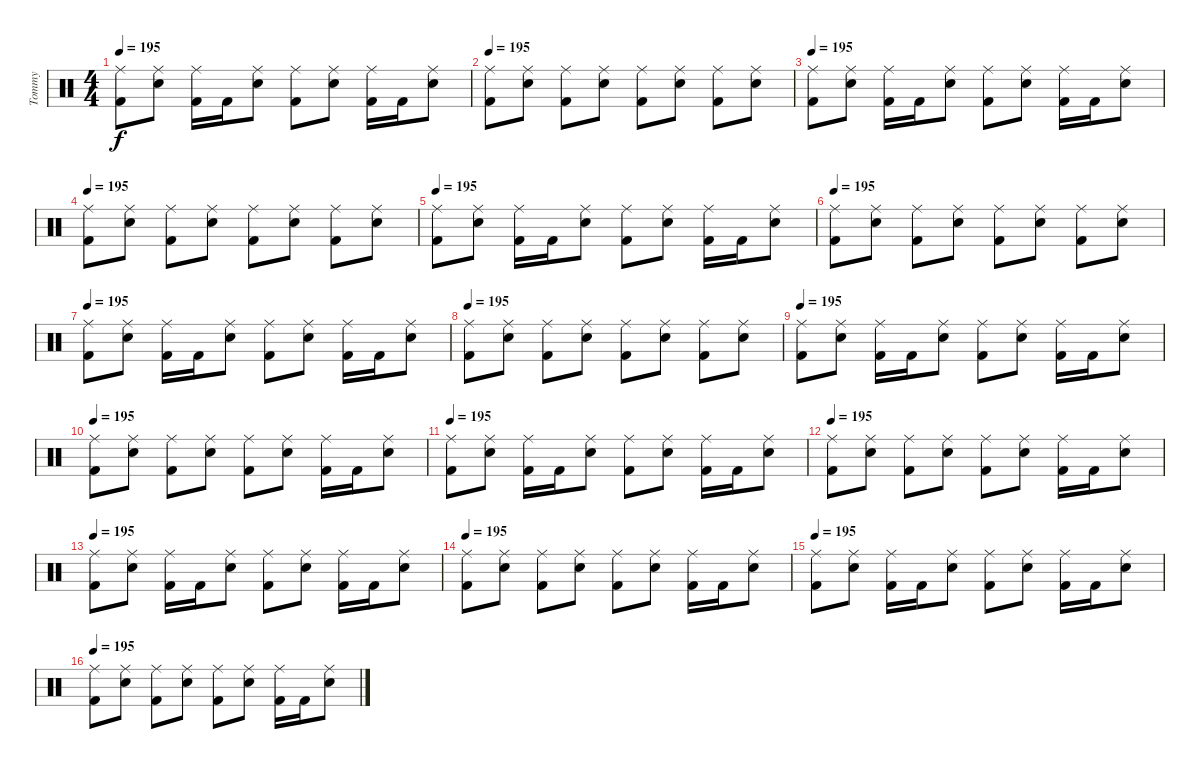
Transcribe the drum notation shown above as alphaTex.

\track ("Tommy" "Tommy") {instrument percussion}
\staff {score}
\articulation defaults
\ts (4 4)
\tempo 195
\clef neutral
\ks c
("Kick (hit) 2" "Ride (middle)").8{dy f} ("Snare (hit) 2" "Ride (middle)").8 ("Kick (hit) 2" "Ride (middle)").16 "Kick (hit) 2".16 ("Snare (hit) 2" "Ride (middle)").8 ("Kick (hit) 2" "Ride (middle)").8 ("Snare (hit) 2" "Ride (middle)").8 ("Kick (hit) 2" "Ride (middle)").16 "Kick (hit) 2".16 ("Snare (hit) 2" "Ride (middle)").8 |
\tempo 195
("Kick (hit) 2" "Ride (middle)").8 ("Snare (hit) 2" "Ride (middle)").8 ("Kick (hit) 2" "Ride (middle)").8 ("Snare (hit) 2" "Ride (middle)").8 ("Kick (hit) 2" "Ride (middle)").8 ("Snare (hit) 2" "Ride (middle)").8 ("Kick (hit) 2" "Ride (middle)").8 ("Snare (hit) 2" "Ride (middle)").8 |
\tempo 195
("Kick (hit) 2" "Ride (middle)").8 ("Snare (hit) 2" "Ride (middle)").8 ("Kick (hit) 2" "Ride (middle)").16 "Kick (hit) 2".16 ("Snare (hit) 2" "Ride (middle)").8 ("Kick (hit) 2" "Ride (middle)").8 ("Snare (hit) 2" "Ride (middle)").8 ("Kick (hit) 2" "Ride (middle)").16 "Kick (hit) 2".16 ("Snare (hit) 2" "Ride (middle)").8 |
\tempo 195
("Kick (hit) 2" "Ride (middle)").8 ("Snare (hit) 2" "Ride (middle)").8 ("Kick (hit) 2" "Ride (middle)").8 ("Snare (hit) 2" "Ride (middle)").8 ("Kick (hit) 2" "Ride (middle)").8 ("Snare (hit) 2" "Ride (middle)").8 ("Kick (hit) 2" "Ride (middle)").8 ("Snare (hit) 2" "Ride (middle)").8 |
\tempo 195
("Kick (hit) 2" "Ride (middle)").8 ("Snare (hit) 2" "Ride (middle)").8 ("Kick (hit) 2" "Ride (middle)").16 "Kick (hit) 2".16 ("Snare (hit) 2" "Ride (middle)").8 ("Kick (hit) 2" "Ride (middle)").8 ("Snare (hit) 2" "Ride (middle)").8 ("Kick (hit) 2" "Ride (middle)").16 "Kick (hit) 2".16 ("Snare (hit) 2" "Ride (middle)").8 |
\tempo 195
("Kick (hit) 2" "Ride (middle)").8 ("Snare (hit) 2" "Ride (middle)").8 ("Kick (hit) 2" "Ride (middle)").8 ("Snare (hit) 2" "Ride (middle)").8 ("Kick (hit) 2" "Ride (middle)").8 ("Snare (hit) 2" "Ride (middle)").8 ("Kick (hit) 2" "Ride (middle)").8 ("Snare (hit) 2" "Ride (middle)").8 |
\tempo 195
("Kick (hit) 2" "Ride (middle)").8 ("Snare (hit) 2" "Ride (middle)").8 ("Kick (hit) 2" "Ride (middle)").16 "Kick (hit) 2".16 ("Snare (hit) 2" "Ride (middle)").8 ("Kick (hit) 2" "Ride (middle)").8 ("Snare (hit) 2" "Ride (middle)").8 ("Kick (hit) 2" "Ride (middle)").16 "Kick (hit) 2".16 ("Snare (hit) 2" "Ride (middle)").8 |
\tempo 195
("Kick (hit) 2" "Ride (middle)").8 ("Snare (hit) 2" "Ride (middle)").8 ("Kick (hit) 2" "Ride (middle)").8 ("Snare (hit) 2" "Ride (middle)").8 ("Kick (hit) 2" "Ride (middle)").8 ("Snare (hit) 2" "Ride (middle)").8 ("Kick (hit) 2" "Ride (middle)").8 ("Snare (hit) 2" "Ride (middle)").8 |
\tempo 195
("Kick (hit) 2" "Ride (middle)").8 ("Snare (hit) 2" "Ride (middle)").8 ("Kick (hit) 2" "Ride (middle)").16 "Kick (hit) 2".16 ("Snare (hit) 2" "Ride (middle)").8 ("Kick (hit) 2" "Ride (middle)").8 ("Snare (hit) 2" "Ride (middle)").8 ("Kick (hit) 2" "Ride (middle)").16 "Kick (hit) 2".16 ("Snare (hit) 2" "Ride (middle)").8 |
\tempo 195
("Kick (hit) 2" "Ride (middle)").8 ("Snare (hit) 2" "Ride (middle)").8 ("Kick (hit) 2" "Ride (middle)").8 ("Snare (hit) 2" "Ride (middle)").8 ("Kick (hit) 2" "Ride (middle)").8 ("Snare (hit) 2" "Ride (middle)").8 ("Kick (hit) 2" "Ride (middle)").16 "Kick (hit) 2".16 ("Snare (hit) 2" "Ride (middle)").8 |
\tempo 195
("Kick (hit) 2" "Ride (middle)").8 ("Snare (hit) 2" "Ride (middle)").8 ("Kick (hit) 2" "Ride (middle)").16 "Kick (hit) 2".16 ("Snare (hit) 2" "Ride (middle)").8 ("Kick (hit) 2" "Ride (middle)").8 ("Snare (hit) 2" "Ride (middle)").8 ("Kick (hit) 2" "Ride (middle)").16 "Kick (hit) 2".16 ("Snare (hit) 2" "Ride (middle)").8 |
\tempo 195
("Kick (hit) 2" "Ride (middle)").8 ("Snare (hit) 2" "Ride (middle)").8 ("Kick (hit) 2" "Ride (middle)").8 ("Snare (hit) 2" "Ride (middle)").8 ("Kick (hit) 2" "Ride (middle)").8 ("Snare (hit) 2" "Ride (middle)").8 ("Kick (hit) 2" "Ride (middle)").16 "Kick (hit) 2".16 ("Snare (hit) 2" "Ride (middle)").8 |
\tempo 195
("Kick (hit) 2" "Ride (middle)").8 ("Snare (hit) 2" "Ride (middle)").8 ("Kick (hit) 2" "Ride (middle)").16 "Kick (hit) 2".16 ("Snare (hit) 2" "Ride (middle)").8 ("Kick (hit) 2" "Ride (middle)").8 ("Snare (hit) 2" "Ride (middle)").8 ("Kick (hit) 2" "Ride (middle)").16 "Kick (hit) 2".16 ("Snare (hit) 2" "Ride (middle)").8 |
\tempo 195
("Kick (hit) 2" "Ride (middle)").8 ("Snare (hit) 2" "Ride (middle)").8 ("Kick (hit) 2" "Ride (middle)").8 ("Snare (hit) 2" "Ride (middle)").8 ("Kick (hit) 2" "Ride (middle)").8 ("Snare (hit) 2" "Ride (middle)").8 ("Kick (hit) 2" "Ride (middle)").16 "Kick (hit) 2".16 ("Snare (hit) 2" "Ride (middle)").8 |
\tempo 195
("Kick (hit) 2" "Ride (middle)").8 ("Snare (hit) 2" "Ride (middle)").8 ("Kick (hit) 2" "Ride (middle)").16 "Kick (hit) 2".16 ("Snare (hit) 2" "Ride (middle)").8 ("Kick (hit) 2" "Ride (middle)").8 ("Snare (hit) 2" "Ride (middle)").8 ("Kick (hit) 2" "Ride (middle)").16 "Kick (hit) 2".16 ("Snare (hit) 2" "Ride (middle)").8 |
\tempo 195
("Kick (hit) 2" "Ride (middle)").8 ("Snare (hit) 2" "Ride (middle)").8 ("Kick (hit) 2" "Ride (middle)").8 ("Snare (hit) 2" "Ride (middle)").8 ("Kick (hit) 2" "Ride (middle)").8 ("Snare (hit) 2" "Ride (middle)").8 ("Kick (hit) 2" "Ride (middle)").16 "Kick (hit) 2".16 ("Snare (hit) 2" "Ride (middle)").8
